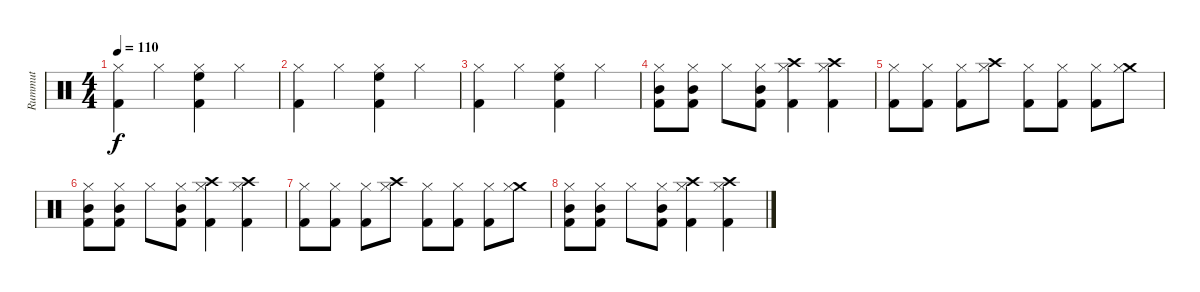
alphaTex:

\track ("Rummut" "Rummut") {instrument percussion}
\staff {score}
\articulation defaults
\ts (4 4)
\tempo 110
\clef neutral
\ks c
("Hi-Hat (closed)" "Kick (hit) 2").4{dy f} "Hi-Hat (closed)".4 ("Hi-Hat (closed)" "High Floor Tom (hit)" "Kick (hit) 2").4 "Hi-Hat (closed)".4 |
("Hi-Hat (closed)" "Kick (hit) 2").4 "Hi-Hat (closed)".4 ("Hi-Hat (closed)" "High Floor Tom (hit)" "Kick (hit) 2").4 "Hi-Hat (closed)".4 |
("Hi-Hat (closed)" "Kick (hit) 2").4 "Hi-Hat (closed)".4 ("Hi-Hat (closed)" "High Floor Tom (hit)" "Kick (hit) 2").4 "Hi-Hat (closed)".4 |
("Hi-Hat (closed)" "Mid Tom (hit)" "Kick (hit) 2").8 ("Hi-Hat (closed)" "Mid Tom (hit)" "Kick (hit) 2").8 "Hi-Hat (closed)".8 ("Hi-Hat (closed)" "Mid Tom (hit)" "Kick (hit) 2").8 ("Crash high (hit)" "Hi-Hat (closed)" "Kick (hit) 2").4 ("Crash high (hit)" "Hi-Hat (closed)" "Kick (hit) 2").4 |
("Hi-Hat (closed)" "Kick (hit) 2").8 ("Hi-Hat (closed)" "Kick (hit) 2").8 ("Hi-Hat (closed)" "Kick (hit) 2").8 ("Crash high (hit)" "Hi-Hat (closed)").8 ("Hi-Hat (closed)" "Kick (hit) 2").8 ("Hi-Hat (closed)" "Kick (hit) 2").8 ("Hi-Hat (closed)" "Kick (hit) 2").8 ("Crash medium (hit)" "Hi-Hat (closed)").8 |
("Hi-Hat (closed)" "Mid Tom (hit)" "Kick (hit) 2").8 ("Hi-Hat (closed)" "Mid Tom (hit)" "Kick (hit) 2").8 "Hi-Hat (closed)".8 ("Hi-Hat (closed)" "Mid Tom (hit)" "Kick (hit) 2").8 ("Crash high (hit)" "Hi-Hat (closed)" "Kick (hit) 2").4 ("Crash high (hit)" "Hi-Hat (closed)" "Kick (hit) 2").4 |
("Hi-Hat (closed)" "Kick (hit) 2").8 ("Hi-Hat (closed)" "Kick (hit) 2").8 ("Hi-Hat (closed)" "Kick (hit) 2").8 ("Crash high (hit)" "Hi-Hat (closed)").8 ("Hi-Hat (closed)" "Kick (hit) 2").8 ("Hi-Hat (closed)" "Kick (hit) 2").8 ("Hi-Hat (closed)" "Kick (hit) 2").8 ("Crash medium (hit)" "Hi-Hat (closed)").8 |
("Hi-Hat (closed)" "Mid Tom (hit)" "Kick (hit) 2").8 ("Hi-Hat (closed)" "Mid Tom (hit)" "Kick (hit) 2").8 "Hi-Hat (closed)".8 ("Hi-Hat (closed)" "Mid Tom (hit)" "Kick (hit) 2").8 ("Crash high (hit)" "Hi-Hat (closed)" "Kick (hit) 2").4 ("Crash high (hit)" "Hi-Hat (closed)" "Kick (hit) 2").4
